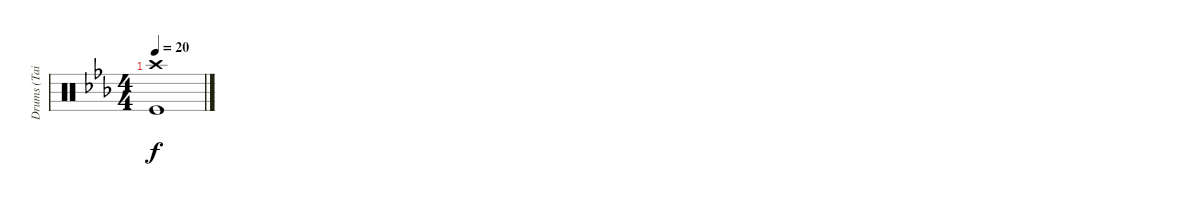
\track ("Drums (Tainaka Ritsu)" "Drums (Tai") {instrument percussion}
\staff {score}
\articulation defaults
\ts (4 4)
\tempo 20
\clef neutral
\ks eb
("Crash high (hit)" "Kick (hit)").1{dy f}
